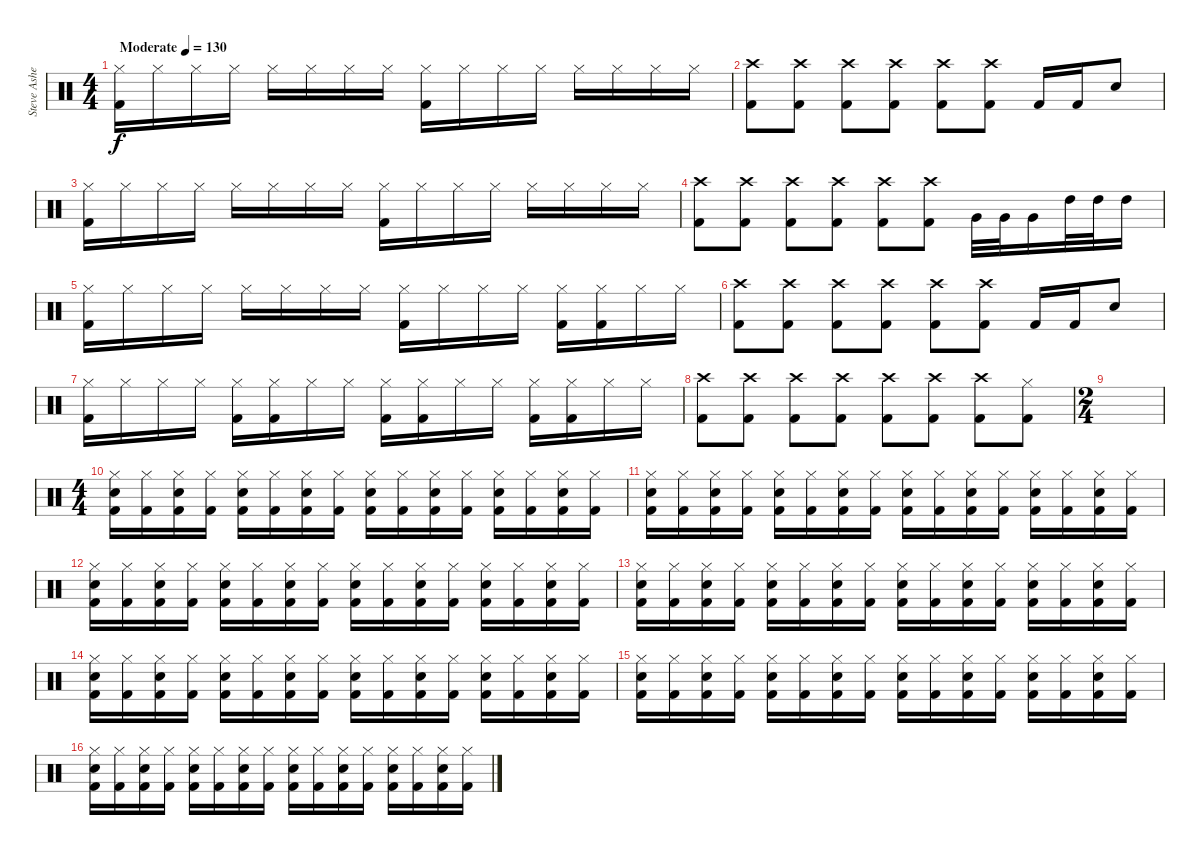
\track ("Steve Asheim" "Steve Ashe") {instrument percussion}
\staff {score}
\articulation defaults
\ts (4 4)
\tempo (130 "Moderate")
\clef neutral
\ks c
("Kick (hit) 2" "Hi-Hat (closed)").16{dy f} "Hi-Hat (closed)".16 "Hi-Hat (closed)".16 "Hi-Hat (closed)".16 "Hi-Hat (closed)".16 "Hi-Hat (closed)".16 "Hi-Hat (closed)".16 "Hi-Hat (closed)".16 ("Kick (hit) 2" "Hi-Hat (closed)").16 "Hi-Hat (closed)".16 "Hi-Hat (closed)".16 "Hi-Hat (closed)".16 "Hi-Hat (closed)".16 "Hi-Hat (closed)".16 "Hi-Hat (closed)".16 "Hi-Hat (closed)".16 |
("Kick (hit) 2" "Crash high (hit)").8 ("Kick (hit) 2" "Crash high (hit)").8 ("Kick (hit) 2" "Crash high (hit)").8 ("Kick (hit) 2" "Crash high (hit)").8 ("Kick (hit) 2" "Crash high (hit)").8 ("Kick (hit) 2" "Crash high (hit)").8 "Kick (hit) 2".16 "Kick (hit) 2".16 "Electric Snare (hit)".8 |
("Kick (hit) 2" "Hi-Hat (closed)").16 "Hi-Hat (closed)".16 "Hi-Hat (closed)".16 "Hi-Hat (closed)".16 "Hi-Hat (closed)".16 "Hi-Hat (closed)".16 "Hi-Hat (closed)".16 "Hi-Hat (closed)".16 ("Kick (hit) 2" "Hi-Hat (closed)").16 "Hi-Hat (closed)".16 "Hi-Hat (closed)".16 "Hi-Hat (closed)".16 "Hi-Hat (closed)".16 "Hi-Hat (closed)".16 "Hi-Hat (closed)".16 "Hi-Hat (closed)".16 |
("Kick (hit) 2" "Crash high (hit)").8 ("Kick (hit) 2" "Crash high (hit)").8 ("Kick (hit) 2" "Crash high (hit)").8 ("Kick (hit) 2" "Crash high (hit)").8 ("Kick (hit) 2" "Crash high (hit)").8 ("Kick (hit) 2" "Crash high (hit)").8 "Very Low Tom (hit)".32 "Very Low Tom (hit)".32 "Very Low Tom (hit)".16 "High Tom (hit)".32 "High Tom (hit)".32 "High Tom (hit)".16 |
("Kick (hit) 2" "Hi-Hat (closed)").16 "Hi-Hat (closed)".16 "Hi-Hat (closed)".16 "Hi-Hat (closed)".16 "Hi-Hat (closed)".16 "Hi-Hat (closed)".16 "Hi-Hat (closed)".16 "Hi-Hat (closed)".16 ("Kick (hit) 2" "Hi-Hat (closed)").16 "Hi-Hat (closed)".16 "Hi-Hat (closed)".16 "Hi-Hat (closed)".16 ("Kick (hit) 2" "Hi-Hat (closed)").16 ("Kick (hit) 2" "Hi-Hat (closed)").16 "Hi-Hat (closed)".16 "Hi-Hat (closed)".16 |
("Kick (hit) 2" "Crash high (hit)").8 ("Kick (hit) 2" "Crash high (hit)").8 ("Kick (hit) 2" "Crash high (hit)").8 ("Kick (hit) 2" "Crash high (hit)").8 ("Kick (hit) 2" "Crash high (hit)").8 ("Kick (hit) 2" "Crash high (hit)").8 "Kick (hit) 2".16 "Kick (hit) 2".16 "Electric Snare (hit)".8 |
("Kick (hit) 2" "Hi-Hat (closed)").16 "Hi-Hat (closed)".16 "Hi-Hat (closed)".16 "Hi-Hat (closed)".16 ("Kick (hit) 2" "Hi-Hat (closed)").16 ("Kick (hit) 2" "Hi-Hat (closed)").16 "Hi-Hat (closed)".16 "Hi-Hat (closed)".16 ("Kick (hit) 2" "Hi-Hat (closed)").16 ("Kick (hit) 2" "Hi-Hat (closed)").16 "Hi-Hat (closed)".16 "Hi-Hat (closed)".16 ("Kick (hit) 2" "Hi-Hat (closed)").16 ("Kick (hit) 2" "Hi-Hat (closed)").16 "Hi-Hat (closed)".16 "Hi-Hat (closed)".16 |
("Kick (hit) 2" "Crash high (hit)").8 ("Kick (hit) 2" "Crash high (hit)").8 ("Kick (hit) 2" "Crash high (hit)").8 ("Kick (hit) 2" "Crash high (hit)").8 ("Kick (hit) 2" "Crash high (hit)").8 ("Kick (hit) 2" "Crash high (hit)").8 ("Kick (hit) 2" "Crash high (hit)").8 ("Kick (hit) 2" "Hi-Hat (closed)").8 |
\ts (2 4)
|
\ts (4 4)
("Kick (hit) 2" "Electric Snare (hit)" "Hi-Hat (closed)").16 ("Kick (hit) 2" "Hi-Hat (closed)").16 ("Kick (hit) 2" "Electric Snare (hit)" "Hi-Hat (closed)").16 ("Kick (hit) 2" "Hi-Hat (closed)").16 ("Kick (hit) 2" "Electric Snare (hit)" "Hi-Hat (closed)").16 ("Kick (hit) 2" "Hi-Hat (closed)").16 ("Kick (hit) 2" "Electric Snare (hit)" "Hi-Hat (closed)").16 ("Kick (hit) 2" "Hi-Hat (closed)").16 ("Kick (hit) 2" "Electric Snare (hit)" "Hi-Hat (closed)").16 ("Kick (hit) 2" "Hi-Hat (closed)").16 ("Kick (hit) 2" "Electric Snare (hit)" "Hi-Hat (closed)").16 ("Kick (hit) 2" "Hi-Hat (closed)").16 ("Kick (hit) 2" "Electric Snare (hit)" "Hi-Hat (closed)").16 ("Kick (hit) 2" "Hi-Hat (closed)").16 ("Kick (hit) 2" "Electric Snare (hit)" "Hi-Hat (closed)").16 ("Kick (hit) 2" "Hi-Hat (closed)").16 |
("Kick (hit) 2" "Electric Snare (hit)" "Hi-Hat (closed)").16 ("Kick (hit) 2" "Hi-Hat (closed)").16 ("Kick (hit) 2" "Electric Snare (hit)" "Hi-Hat (closed)").16 ("Kick (hit) 2" "Hi-Hat (closed)").16 ("Kick (hit) 2" "Electric Snare (hit)" "Hi-Hat (closed)").16 ("Kick (hit) 2" "Hi-Hat (closed)").16 ("Kick (hit) 2" "Electric Snare (hit)" "Hi-Hat (closed)").16 ("Kick (hit) 2" "Hi-Hat (closed)").16 ("Kick (hit) 2" "Electric Snare (hit)" "Hi-Hat (closed)").16 ("Kick (hit) 2" "Hi-Hat (closed)").16 ("Kick (hit) 2" "Electric Snare (hit)" "Hi-Hat (closed)").16 ("Kick (hit) 2" "Hi-Hat (closed)").16 ("Kick (hit) 2" "Electric Snare (hit)" "Hi-Hat (closed)").16 ("Kick (hit) 2" "Hi-Hat (closed)").16 ("Kick (hit) 2" "Electric Snare (hit)" "Hi-Hat (closed)").16 ("Kick (hit) 2" "Hi-Hat (closed)").16 |
("Kick (hit) 2" "Electric Snare (hit)" "Hi-Hat (closed)").16 ("Kick (hit) 2" "Hi-Hat (closed)").16 ("Kick (hit) 2" "Electric Snare (hit)" "Hi-Hat (closed)").16 ("Kick (hit) 2" "Hi-Hat (closed)").16 ("Kick (hit) 2" "Electric Snare (hit)" "Hi-Hat (closed)").16 ("Kick (hit) 2" "Hi-Hat (closed)").16 ("Kick (hit) 2" "Electric Snare (hit)" "Hi-Hat (closed)").16 ("Kick (hit) 2" "Hi-Hat (closed)").16 ("Kick (hit) 2" "Electric Snare (hit)" "Hi-Hat (closed)").16 ("Kick (hit) 2" "Hi-Hat (closed)").16 ("Kick (hit) 2" "Electric Snare (hit)" "Hi-Hat (closed)").16 ("Kick (hit) 2" "Hi-Hat (closed)").16 ("Kick (hit) 2" "Electric Snare (hit)" "Hi-Hat (closed)").16 ("Kick (hit) 2" "Hi-Hat (closed)").16 ("Kick (hit) 2" "Electric Snare (hit)" "Hi-Hat (closed)").16 ("Kick (hit) 2" "Hi-Hat (closed)").16 |
("Kick (hit) 2" "Electric Snare (hit)" "Hi-Hat (closed)").16 ("Kick (hit) 2" "Hi-Hat (closed)").16 ("Kick (hit) 2" "Electric Snare (hit)" "Hi-Hat (closed)").16 ("Kick (hit) 2" "Hi-Hat (closed)").16 ("Kick (hit) 2" "Electric Snare (hit)" "Hi-Hat (closed)").16 ("Kick (hit) 2" "Hi-Hat (closed)").16 ("Kick (hit) 2" "Electric Snare (hit)" "Hi-Hat (closed)").16 ("Kick (hit) 2" "Hi-Hat (closed)").16 ("Kick (hit) 2" "Electric Snare (hit)" "Hi-Hat (closed)").16 ("Kick (hit) 2" "Hi-Hat (closed)").16 ("Kick (hit) 2" "Electric Snare (hit)" "Hi-Hat (closed)").16 ("Kick (hit) 2" "Hi-Hat (closed)").16 ("Kick (hit) 2" "Electric Snare (hit)" "Hi-Hat (closed)").16 ("Kick (hit) 2" "Hi-Hat (closed)").16 ("Kick (hit) 2" "Electric Snare (hit)" "Hi-Hat (closed)").16 ("Kick (hit) 2" "Hi-Hat (closed)").16 |
("Kick (hit) 2" "Electric Snare (hit)" "Hi-Hat (closed)").16 ("Kick (hit) 2" "Hi-Hat (closed)").16 ("Kick (hit) 2" "Electric Snare (hit)" "Hi-Hat (closed)").16 ("Kick (hit) 2" "Hi-Hat (closed)").16 ("Kick (hit) 2" "Electric Snare (hit)" "Hi-Hat (closed)").16 ("Kick (hit) 2" "Hi-Hat (closed)").16 ("Kick (hit) 2" "Electric Snare (hit)" "Hi-Hat (closed)").16 ("Kick (hit) 2" "Hi-Hat (closed)").16 ("Kick (hit) 2" "Electric Snare (hit)" "Hi-Hat (closed)").16 ("Kick (hit) 2" "Hi-Hat (closed)").16 ("Kick (hit) 2" "Electric Snare (hit)" "Hi-Hat (closed)").16 ("Kick (hit) 2" "Hi-Hat (closed)").16 ("Kick (hit) 2" "Electric Snare (hit)" "Hi-Hat (closed)").16 ("Kick (hit) 2" "Hi-Hat (closed)").16 ("Kick (hit) 2" "Electric Snare (hit)" "Hi-Hat (closed)").16 ("Kick (hit) 2" "Hi-Hat (closed)").16 |
("Kick (hit) 2" "Electric Snare (hit)" "Hi-Hat (closed)").16 ("Kick (hit) 2" "Hi-Hat (closed)").16 ("Kick (hit) 2" "Electric Snare (hit)" "Hi-Hat (closed)").16 ("Kick (hit) 2" "Hi-Hat (closed)").16 ("Kick (hit) 2" "Electric Snare (hit)" "Hi-Hat (closed)").16 ("Kick (hit) 2" "Hi-Hat (closed)").16 ("Kick (hit) 2" "Electric Snare (hit)" "Hi-Hat (closed)").16 ("Kick (hit) 2" "Hi-Hat (closed)").16 ("Kick (hit) 2" "Electric Snare (hit)" "Hi-Hat (closed)").16 ("Kick (hit) 2" "Hi-Hat (closed)").16 ("Kick (hit) 2" "Electric Snare (hit)" "Hi-Hat (closed)").16 ("Kick (hit) 2" "Hi-Hat (closed)").16 ("Kick (hit) 2" "Electric Snare (hit)" "Hi-Hat (closed)").16 ("Kick (hit) 2" "Hi-Hat (closed)").16 ("Kick (hit) 2" "Electric Snare (hit)" "Hi-Hat (closed)").16 ("Kick (hit) 2" "Hi-Hat (closed)").16 |
("Kick (hit) 2" "Electric Snare (hit)" "Hi-Hat (closed)").16 ("Kick (hit) 2" "Hi-Hat (closed)").16 ("Kick (hit) 2" "Electric Snare (hit)" "Hi-Hat (closed)").16 ("Kick (hit) 2" "Hi-Hat (closed)").16 ("Kick (hit) 2" "Electric Snare (hit)" "Hi-Hat (closed)").16 ("Kick (hit) 2" "Hi-Hat (closed)").16 ("Kick (hit) 2" "Electric Snare (hit)" "Hi-Hat (closed)").16 ("Kick (hit) 2" "Hi-Hat (closed)").16 ("Kick (hit) 2" "Electric Snare (hit)" "Hi-Hat (closed)").16 ("Kick (hit) 2" "Hi-Hat (closed)").16 ("Kick (hit) 2" "Electric Snare (hit)" "Hi-Hat (closed)").16 ("Kick (hit) 2" "Hi-Hat (closed)").16 ("Kick (hit) 2" "Electric Snare (hit)" "Hi-Hat (closed)").16 ("Kick (hit) 2" "Hi-Hat (closed)").16 ("Kick (hit) 2" "Electric Snare (hit)" "Hi-Hat (closed)").16 ("Kick (hit) 2" "Hi-Hat (closed)").16
